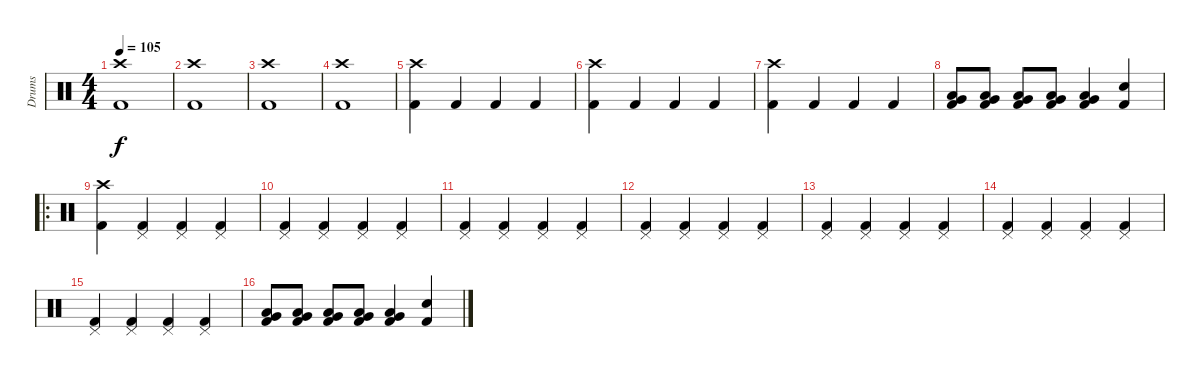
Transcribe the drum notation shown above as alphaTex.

\track ("Drums" "Drums") {instrument percussion}
\staff {score}
\articulation defaults
\ts (4 4)
\tempo 105
\clef neutral
\ks c
("Crash high (hit)" "Kick (hit) 2").1{dy f} |
("Crash high (hit)" "Kick (hit) 2").1 |
("Crash high (hit)" "Kick (hit) 2").1 |
("Crash high (hit)" "Kick (hit) 2").1 |
("Crash high (hit)" "Kick (hit) 2").4 "Kick (hit) 2".4 "Kick (hit) 2".4 "Kick (hit) 2".4 |
("Crash high (hit)" "Kick (hit) 2").4 "Kick (hit) 2".4 "Kick (hit) 2".4 "Kick (hit) 2".4 |
("Crash high (hit)" "Kick (hit) 2").4 "Kick (hit) 2".4 "Kick (hit) 2".4 "Kick (hit) 2".4 |
("Low Tom (hit)" "Very Low Tom (hit)" "Kick (hit) 2").8 ("Low Tom (hit)" "Very Low Tom (hit)" "Kick (hit) 2").8 ("Low Tom (hit)" "Very Low Tom (hit)" "Kick (hit) 2").8 ("Low Tom (hit)" "Very Low Tom (hit)" "Kick (hit) 2").8 ("Low Tom (hit)" "Very Low Tom (hit)" "Kick (hit) 2").4 ("Snare (hit) 2" "Kick (hit) 2").4 |
\ro
("Crash high (hit)" "Kick (hit) 2").4 ("Pedal Hi-Hat (hit)" "Kick (hit) 2").4 ("Pedal Hi-Hat (hit)" "Kick (hit) 2").4 ("Pedal Hi-Hat (hit)" "Kick (hit) 2").4 |
("Pedal Hi-Hat (hit)" "Kick (hit) 2").4 ("Pedal Hi-Hat (hit)" "Kick (hit) 2").4 ("Pedal Hi-Hat (hit)" "Kick (hit) 2").4 ("Pedal Hi-Hat (hit)" "Kick (hit) 2").4 |
("Pedal Hi-Hat (hit)" "Kick (hit) 2").4 ("Pedal Hi-Hat (hit)" "Kick (hit) 2").4 ("Pedal Hi-Hat (hit)" "Kick (hit) 2").4 ("Pedal Hi-Hat (hit)" "Kick (hit) 2").4 |
("Pedal Hi-Hat (hit)" "Kick (hit) 2").4 ("Pedal Hi-Hat (hit)" "Kick (hit) 2").4 ("Pedal Hi-Hat (hit)" "Kick (hit) 2").4 ("Pedal Hi-Hat (hit)" "Kick (hit) 2").4 |
("Pedal Hi-Hat (hit)" "Kick (hit) 2").4 ("Pedal Hi-Hat (hit)" "Kick (hit) 2").4 ("Pedal Hi-Hat (hit)" "Kick (hit) 2").4 ("Pedal Hi-Hat (hit)" "Kick (hit) 2").4 |
("Pedal Hi-Hat (hit)" "Kick (hit) 2").4 ("Pedal Hi-Hat (hit)" "Kick (hit) 2").4 ("Pedal Hi-Hat (hit)" "Kick (hit) 2").4 ("Pedal Hi-Hat (hit)" "Kick (hit) 2").4 |
("Pedal Hi-Hat (hit)" "Kick (hit) 2").4 ("Pedal Hi-Hat (hit)" "Kick (hit) 2").4 ("Pedal Hi-Hat (hit)" "Kick (hit) 2").4 ("Pedal Hi-Hat (hit)" "Kick (hit) 2").4 |
("Low Tom (hit)" "Very Low Tom (hit)" "Kick (hit) 2").8 ("Low Tom (hit)" "Very Low Tom (hit)" "Kick (hit) 2").8 ("Low Tom (hit)" "Very Low Tom (hit)" "Kick (hit) 2").8 ("Low Tom (hit)" "Very Low Tom (hit)" "Kick (hit) 2").8 ("Low Tom (hit)" "Very Low Tom (hit)" "Kick (hit) 2").4 ("Snare (hit) 2" "Kick (hit) 2").4
